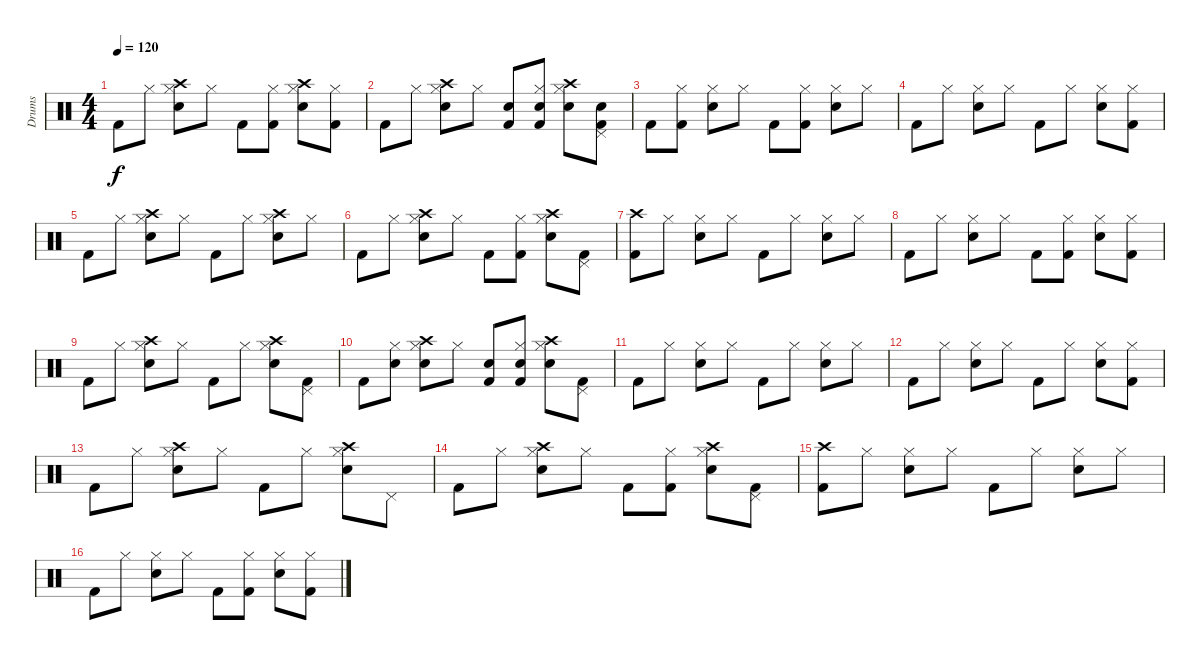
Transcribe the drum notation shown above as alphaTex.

\track ("Drums" "Drums") {instrument percussion}
\staff {score}
\articulation defaults
\ts (4 4)
\tempo 120
\clef neutral
\ks c "Kick (hit) 2".8{dy f} "Hi-Hat (closed)".8
("Hi-Hat (closed)" "Crash high (hit)" "Snare (hit) 2").8 "Hi-Hat (closed)".8 "Kick (hit) 2".8 ("Hi-Hat (closed)" "Kick (hit) 2").8 ("Hi-Hat (closed)" "Crash high (hit)" "Snare (hit) 2").8 ("Hi-Hat (closed)" "Kick (hit) 2").8 |
"Kick (hit) 2".8 "Hi-Hat (closed)".8 ("Hi-Hat (closed)" "Crash high (hit)" "Snare (hit) 2").8 "Hi-Hat (closed)".8 ("Snare (hit) 2" "Kick (hit) 2").8 ("Hi-Hat (closed)" "Snare (hit) 2" "Kick (hit) 2").8 ("Hi-Hat (closed)" "Crash high (hit)" "Snare (hit) 2").8 ("Pedal Hi-Hat (hit)" "Snare (hit) 2" "Kick (hit) 2").8 |
"Kick (hit) 2".8 ("Hi-Hat (closed)" "Kick (hit) 2").8 ("Hi-Hat (closed)" "Snare (hit) 2").8 "Hi-Hat (closed)".8 "Kick (hit) 2".8 ("Hi-Hat (closed)" "Kick (hit) 2").8 ("Hi-Hat (closed)" "Snare (hit) 2").8 "Hi-Hat (closed)".8 |
"Kick (hit) 2".8 "Hi-Hat (closed)".8 ("Hi-Hat (closed)" "Snare (hit) 2").8 "Hi-Hat (closed)".8 "Kick (hit) 2".8 "Hi-Hat (closed)".8 ("Hi-Hat (closed)" "Snare (hit) 2").8 ("Hi-Hat (closed)" "Kick (hit) 2").8 |
"Kick (hit) 2".8 "Hi-Hat (closed)".8 ("Hi-Hat (closed)" "Crash high (hit)" "Snare (hit) 2").8 "Hi-Hat (closed)".8 "Kick (hit) 2".8 "Hi-Hat (closed)".8 ("Hi-Hat (closed)" "Crash high (hit)" "Snare (hit) 2").8 "Hi-Hat (closed)".8 |
"Kick (hit) 2".8 "Hi-Hat (closed)".8 ("Hi-Hat (closed)" "Crash high (hit)" "Snare (hit) 2").8 "Hi-Hat (closed)".8 "Kick (hit) 2".8 ("Hi-Hat (closed)" "Kick (hit) 2").8 ("Hi-Hat (closed)" "Crash high (hit)" "Snare (hit) 2").8 ("Pedal Hi-Hat (hit)" "Kick (hit) 2").8 |
("Crash high (hit)" "Kick (hit) 2").8 "Hi-Hat (closed)".8 ("Hi-Hat (closed)" "Snare (hit) 2").8 "Hi-Hat (closed)".8 "Kick (hit) 2".8 "Hi-Hat (closed)".8 ("Hi-Hat (closed)" "Snare (hit) 2").8 "Hi-Hat (closed)".8 |
"Kick (hit) 2".8 "Hi-Hat (closed)".8 ("Hi-Hat (closed)" "Snare (hit) 2").8 "Hi-Hat (closed)".8 "Kick (hit) 2".8 ("Hi-Hat (closed)" "Kick (hit) 2").8 ("Hi-Hat (closed)" "Snare (hit) 2").8 ("Hi-Hat (closed)" "Kick (hit) 2").8 |
"Kick (hit) 2".8 "Hi-Hat (closed)".8 ("Hi-Hat (closed)" "Crash high (hit)" "Snare (hit) 2").8 "Hi-Hat (closed)".8 "Kick (hit) 2".8 "Hi-Hat (closed)".8 ("Hi-Hat (closed)" "Crash high (hit)" "Snare (hit) 2").8 ("Pedal Hi-Hat (hit)" "Kick (hit) 2").8 |
"Kick (hit) 2".8 ("Hi-Hat (closed)" "Snare (hit) 2").8 ("Hi-Hat (closed)" "Crash high (hit)" "Snare (hit) 2").8 "Hi-Hat (closed)".8 ("Snare (hit) 2" "Kick (hit) 2").8 ("Hi-Hat (closed)" "Snare (hit) 2" "Kick (hit) 2").8 ("Hi-Hat (closed)" "Crash high (hit)" "Snare (hit) 2").8 ("Pedal Hi-Hat (hit)" "Kick (hit) 2").8 |
"Kick (hit) 2".8 "Hi-Hat (closed)".8 ("Hi-Hat (closed)" "Snare (hit) 2").8 "Hi-Hat (closed)".8 "Kick (hit) 2".8 "Hi-Hat (closed)".8 ("Hi-Hat (closed)" "Snare (hit) 2").8 "Hi-Hat (closed)".8 |
"Kick (hit) 2".8 "Hi-Hat (closed)".8 ("Hi-Hat (closed)" "Snare (hit) 2").8 "Hi-Hat (closed)".8 "Kick (hit) 2".8 "Hi-Hat (closed)".8 ("Hi-Hat (closed)" "Snare (hit) 2").8 ("Hi-Hat (closed)" "Kick (hit) 2").8 |
"Kick (hit) 2".8 "Hi-Hat (closed)".8 ("Hi-Hat (closed)" "Crash high (hit)" "Snare (hit) 2").8 "Hi-Hat (closed)".8 "Kick (hit) 2".8 "Hi-Hat (closed)".8 ("Hi-Hat (closed)" "Crash high (hit)" "Snare (hit) 2").8 "Pedal Hi-Hat (hit)".8 |
"Kick (hit) 2".8 "Hi-Hat (closed)".8 ("Hi-Hat (closed)" "Crash high (hit)" "Snare (hit) 2").8 "Hi-Hat (closed)".8 "Kick (hit) 2".8 ("Hi-Hat (closed)" "Kick (hit) 2").8 ("Hi-Hat (closed)" "Crash high (hit)" "Snare (hit) 2").8 ("Pedal Hi-Hat (hit)" "Kick (hit) 2").8 |
("Crash high (hit)" "Kick (hit) 2").8 "Hi-Hat (closed)".8 ("Hi-Hat (closed)" "Snare (hit) 2").8 "Hi-Hat (closed)".8 "Kick (hit) 2".8 "Hi-Hat (closed)".8 ("Hi-Hat (closed)" "Snare (hit) 2").8 "Hi-Hat (closed)".8 |
"Kick (hit) 2".8 "Hi-Hat (closed)".8 ("Hi-Hat (closed)" "Snare (hit) 2").8 "Hi-Hat (closed)".8 "Kick (hit) 2".8 ("Hi-Hat (closed)" "Kick (hit) 2").8 ("Hi-Hat (closed)" "Snare (hit) 2").8 ("Hi-Hat (closed)" "Kick (hit) 2").8
